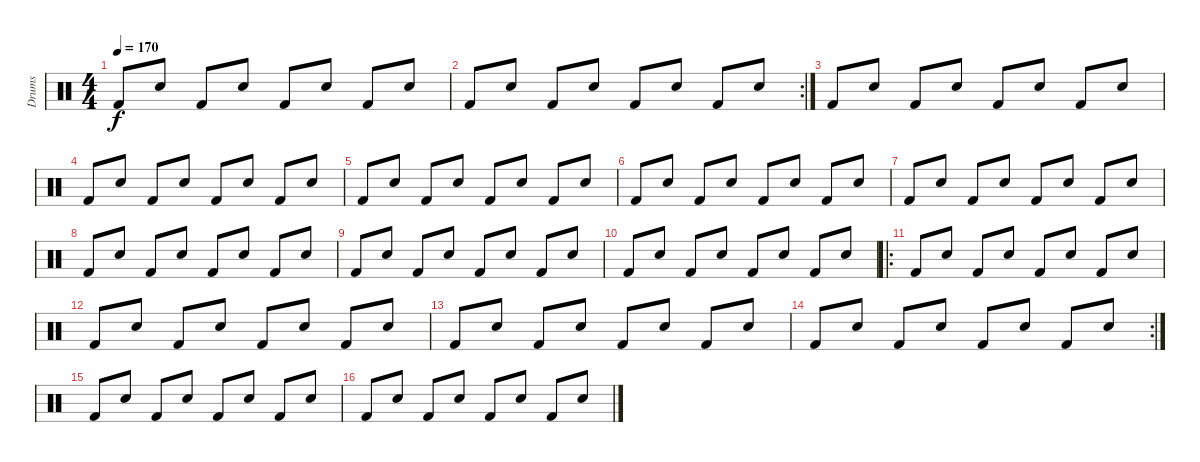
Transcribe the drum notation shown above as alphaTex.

\track ("Drums" "Drums") {instrument percussion}
\staff {score}
\articulation defaults
\ts (4 4)
\tempo 170
\clef neutral
\ks c "Kick (hit) 2".8{dy f} "Snare (hit) 2".8 "Kick (hit) 2".8 "Snare (hit) 2".8 "Kick (hit) 2".8 "Snare (hit) 2".8 "Kick (hit) 2".8 "Snare (hit) 2".8
|
\rc 2 "Kick (hit) 2".8 "Snare (hit) 2".8 "Kick (hit) 2".8 "Snare (hit) 2".8 "Kick (hit) 2".8 "Snare (hit) 2".8 "Kick (hit) 2".8 "Snare (hit) 2".8
|
"Kick (hit) 2".8 "Snare (hit) 2".8 "Kick (hit) 2".8 "Snare (hit) 2".8 "Kick (hit) 2".8 "Snare (hit) 2".8 "Kick (hit) 2".8 "Snare (hit) 2".8 |
"Kick (hit) 2".8 "Snare (hit) 2".8 "Kick (hit) 2".8 "Snare (hit) 2".8 "Kick (hit) 2".8 "Snare (hit) 2".8 "Kick (hit) 2".8 "Snare (hit) 2".8 |
"Kick (hit) 2".8 "Snare (hit) 2".8 "Kick (hit) 2".8 "Snare (hit) 2".8 "Kick (hit) 2".8 "Snare (hit) 2".8 "Kick (hit) 2".8 "Snare (hit) 2".8 |
"Kick (hit) 2".8 "Snare (hit) 2".8 "Kick (hit) 2".8 "Snare (hit) 2".8 "Kick (hit) 2".8 "Snare (hit) 2".8 "Kick (hit) 2".8 "Snare (hit) 2".8 |
"Kick (hit) 2".8 "Snare (hit) 2".8 "Kick (hit) 2".8 "Snare (hit) 2".8 "Kick (hit) 2".8 "Snare (hit) 2".8 "Kick (hit) 2".8 "Snare (hit) 2".8 |
"Kick (hit) 2".8 "Snare (hit) 2".8 "Kick (hit) 2".8 "Snare (hit) 2".8 "Kick (hit) 2".8 "Snare (hit) 2".8 "Kick (hit) 2".8 "Snare (hit) 2".8 |
"Kick (hit) 2".8 "Snare (hit) 2".8 "Kick (hit) 2".8 "Snare (hit) 2".8 "Kick (hit) 2".8 "Snare (hit) 2".8 "Kick (hit) 2".8 "Snare (hit) 2".8 |
"Kick (hit) 2".8 "Snare (hit) 2".8 "Kick (hit) 2".8 "Snare (hit) 2".8 "Kick (hit) 2".8 "Snare (hit) 2".8 "Kick (hit) 2".8 "Snare (hit) 2".8 |
\ro "Kick (hit) 2".8 "Snare (hit) 2".8 "Kick (hit) 2".8 "Snare (hit) 2".8 "Kick (hit) 2".8 "Snare (hit) 2".8 "Kick (hit) 2".8 "Snare (hit) 2".8
|
"Kick (hit) 2".8 "Snare (hit) 2".8 "Kick (hit) 2".8 "Snare (hit) 2".8 "Kick (hit) 2".8 "Snare (hit) 2".8 "Kick (hit) 2".8 "Snare (hit) 2".8 |
"Kick (hit) 2".8 "Snare (hit) 2".8 "Kick (hit) 2".8 "Snare (hit) 2".8 "Kick (hit) 2".8 "Snare (hit) 2".8 "Kick (hit) 2".8 "Snare (hit) 2".8 |
\rc 2 "Kick (hit) 2".8 "Snare (hit) 2".8 "Kick (hit) 2".8 "Snare (hit) 2".8 "Kick (hit) 2".8 "Snare (hit) 2".8 "Kick (hit) 2".8 "Snare (hit) 2".8
|
"Kick (hit) 2".8 "Snare (hit) 2".8 "Kick (hit) 2".8 "Snare (hit) 2".8 "Kick (hit) 2".8 "Snare (hit) 2".8 "Kick (hit) 2".8 "Snare (hit) 2".8 |
"Kick (hit) 2".8 "Snare (hit) 2".8 "Kick (hit) 2".8 "Snare (hit) 2".8 "Kick (hit) 2".8 "Snare (hit) 2".8 "Kick (hit) 2".8 "Snare (hit) 2".8
